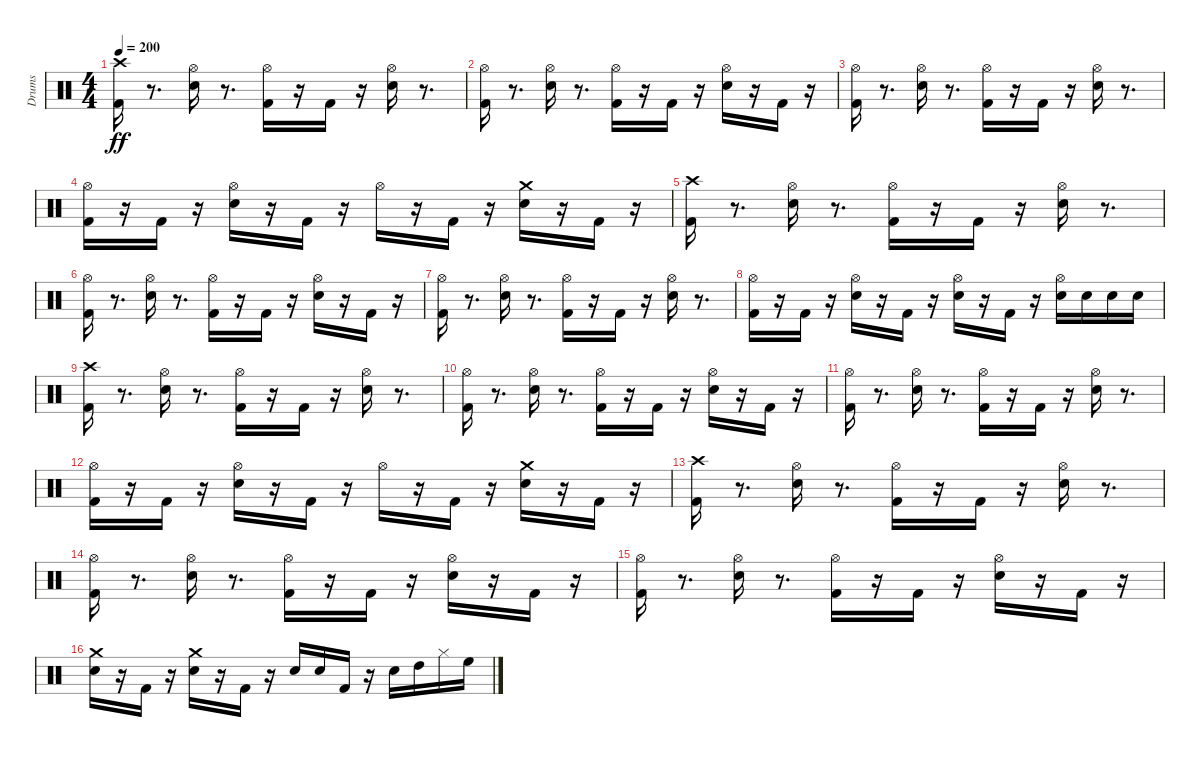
\track ("Drums" "Drums") {instrument percussion}
\staff {score}
\articulation defaults
\ts (4 4)
\tempo 200
\clef neutral
\ks c
("Kick (hit) 2" "Crash high (hit)").16{dy ff} r.8{d} ("Snare (hit) 2" "Hi-Hat (open)").16 r.8{d} ("Kick (hit) 2" "Hi-Hat (open)").16 r.16 "Kick (hit) 2".16 r.16 ("Snare (hit) 2" "Hi-Hat (open)").16 r.8{d} |
("Kick (hit) 2" "Hi-Hat (open)").16 r.8{d} ("Snare (hit) 2" "Hi-Hat (open)").16 r.8{d} ("Kick (hit) 2" "Hi-Hat (open)").16 r.16 "Kick (hit) 2".16 r.16 ("Snare (hit) 2" "Hi-Hat (open)").16 r.16 "Kick (hit) 2".16 r.16 |
("Kick (hit) 2" "Hi-Hat (open)").16 r.8{d} ("Snare (hit) 2" "Hi-Hat (open)").16 r.8{d} ("Kick (hit) 2" "Hi-Hat (open)").16 r.16 "Kick (hit) 2".16 r.16 ("Snare (hit) 2" "Hi-Hat (open)").16 r.8{d} |
("Kick (hit) 2" "Hi-Hat (open)").16 r.16 "Kick (hit) 2".16 r.16 ("Snare (hit) 2" "Hi-Hat (open)").16 r.16 "Kick (hit) 2".16 r.16 "Hi-Hat (open)".16 r.16 "Kick (hit) 2".16 r.16 ("Snare (hit) 2" "Crash medium (hit)").16 r.16 "Kick (hit) 2".16 r.16 |
("Kick (hit) 2" "Crash high (hit)").16 r.8{d} ("Snare (hit) 2" "Hi-Hat (open)").16 r.8{d} ("Kick (hit) 2" "Hi-Hat (open)").16 r.16 "Kick (hit) 2".16 r.16 ("Snare (hit) 2" "Hi-Hat (open)").16 r.8{d} |
("Kick (hit) 2" "Hi-Hat (open)").16 r.8{d} ("Snare (hit) 2" "Hi-Hat (open)").16 r.8{d} ("Kick (hit) 2" "Hi-Hat (open)").16 r.16 "Kick (hit) 2".16 r.16 ("Snare (hit) 2" "Hi-Hat (open)").16 r.16 "Kick (hit) 2".16 r.16 |
("Kick (hit) 2" "Hi-Hat (open)").16 r.8{d} ("Snare (hit) 2" "Hi-Hat (open)").16 r.8{d} ("Kick (hit) 2" "Hi-Hat (open)").16 r.16 "Kick (hit) 2".16 r.16 ("Snare (hit) 2" "Hi-Hat (open)").16 r.8{d} |
("Kick (hit) 2" "Hi-Hat (open)").16 r.16 "Kick (hit) 2".16 r.16 ("Snare (hit) 2" "Hi-Hat (open)").16 r.16 "Kick (hit) 2".16 r.16 ("Snare (hit) 2" "Hi-Hat (open)").16 r.16 "Kick (hit) 2".16 r.16 ("Snare (hit) 2" "Hi-Hat (open)").16 "Snare (hit) 2".16 "Snare (hit) 2".16 "Snare (hit) 2".16 |
("Kick (hit) 2" "Crash high (hit)").16 r.8{d} ("Snare (hit) 2" "Hi-Hat (open)").16 r.8{d} ("Kick (hit) 2" "Hi-Hat (open)").16 r.16 "Kick (hit) 2".16 r.16 ("Snare (hit) 2" "Hi-Hat (open)").16 r.8{d} |
("Kick (hit) 2" "Hi-Hat (open)").16 r.8{d} ("Snare (hit) 2" "Hi-Hat (open)").16 r.8{d} ("Kick (hit) 2" "Hi-Hat (open)").16 r.16 "Kick (hit) 2".16 r.16 ("Snare (hit) 2" "Hi-Hat (open)").16 r.16 "Kick (hit) 2".16 r.16 |
("Kick (hit) 2" "Hi-Hat (open)").16 r.8{d} ("Snare (hit) 2" "Hi-Hat (open)").16 r.8{d} ("Kick (hit) 2" "Hi-Hat (open)").16 r.16 "Kick (hit) 2".16 r.16 ("Snare (hit) 2" "Hi-Hat (open)").16 r.8{d} |
("Kick (hit) 2" "Hi-Hat (open)").16 r.16 "Kick (hit) 2".16 r.16 ("Snare (hit) 2" "Hi-Hat (open)").16 r.16 "Kick (hit) 2".16 r.16 "Hi-Hat (open)".16 r.16 "Kick (hit) 2".16 r.16 ("Snare (hit) 2" "Crash medium (hit)").16 r.16 "Kick (hit) 2".16 r.16 |
("Kick (hit) 2" "Crash high (hit)").16 r.8{d} ("Snare (hit) 2" "Hi-Hat (open)").16 r.8{d} ("Kick (hit) 2" "Hi-Hat (open)").16 r.16 "Kick (hit) 2".16 r.16 ("Snare (hit) 2" "Hi-Hat (open)").16 r.8{d} |
("Kick (hit) 2" "Hi-Hat (open)").16 r.8{d} ("Snare (hit) 2" "Hi-Hat (open)").16 r.8{d} ("Kick (hit) 2" "Hi-Hat (open)").16 r.16 "Kick (hit) 2".16 r.16 ("Snare (hit) 2" "Hi-Hat (open)").16 r.16 "Kick (hit) 2".16 r.16 |
("Kick (hit) 2" "Hi-Hat (open)").16 r.8{d} ("Snare (hit) 2" "Hi-Hat (open)").16 r.8{d} ("Kick (hit) 2" "Hi-Hat (open)").16 r.16 "Kick (hit) 2".16 r.16 ("Snare (hit) 2" "Hi-Hat (open)").16 r.16 "Kick (hit) 2".16 r.16 |
("Snare (hit) 2" "Crash medium (hit)").16 r.16 "Kick (hit) 2".16 r.16 ("Snare (hit) 2" "Crash medium (hit)").16 r.16 "Kick (hit) 2".16 r.16 "Snare (hit) 2".16 "Snare (hit) 2".16 "Kick (hit) 2".16 r.16 "Snare (hit) 2".16 "High Tom (hit)".16 "Hi-Hat (closed)".16 "High Floor Tom (hit)".16
